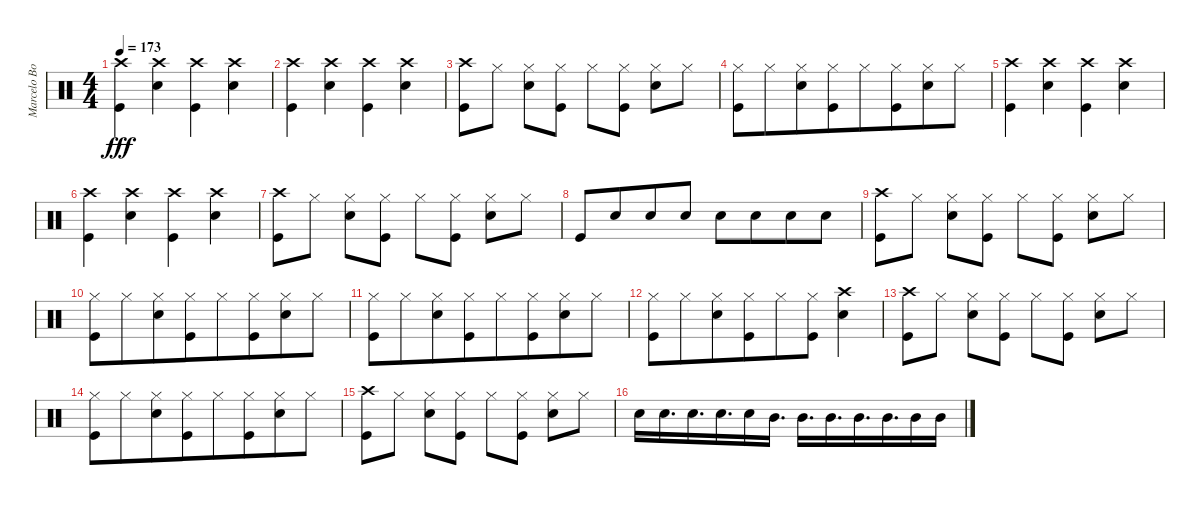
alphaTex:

\track ("Marcelo Bonfá (Bateria)" "Marcelo Bo") {instrument percussion}
\staff {score}
\articulation defaults
\ts (4 4)
\tempo 173
\clef neutral
\ks c
("Kick (hit)" "Crash high (hit)").4{dy fff} ("Crash high (hit)" "Snare (hit) 2").4 ("Kick (hit)" "Crash high (hit)").4 ("Snare (hit) 2" "Crash high (hit)").4 |
("Kick (hit)" "Crash high (hit)").4 ("Crash high (hit)" "Snare (hit) 2").4 ("Kick (hit)" "Crash high (hit)").4 ("Snare (hit) 2" "Crash high (hit)").4 |
("Kick (hit)" "Crash high (hit)").8 "Hi-Hat (closed)".8 ("Snare (hit) 2" "Hi-Hat (closed)").8 ("Kick (hit)" "Hi-Hat (closed)").8 "Hi-Hat (closed)".8 ("Hi-Hat (closed)" "Kick (hit)").8 ("Snare (hit) 2" "Hi-Hat (closed)").8 "Hi-Hat (closed)".8 |
("Kick (hit)" "Hi-Hat (closed)").8 "Hi-Hat (closed)".8{beam merge} ("Snare (hit) 2" "Hi-Hat (closed)").8 ("Kick (hit)" "Hi-Hat (closed)").8{beam merge} "Hi-Hat (closed)".8 ("Hi-Hat (closed)" "Kick (hit)").8{beam merge} ("Snare (hit) 2" "Hi-Hat (closed)").8 "Hi-Hat (closed)".8 |
("Kick (hit)" "Crash high (hit)").4 ("Crash high (hit)" "Snare (hit) 2").4 ("Kick (hit)" "Crash high (hit)").4 ("Snare (hit) 2" "Crash high (hit)").4 |
("Kick (hit)" "Crash high (hit)").4 ("Crash high (hit)" "Snare (hit) 2").4 ("Kick (hit)" "Crash high (hit)").4 ("Snare (hit) 2" "Crash high (hit)").4 |
("Kick (hit)" "Crash high (hit)").8 "Hi-Hat (closed)".8 ("Snare (hit) 2" "Hi-Hat (closed)").8 ("Kick (hit)" "Hi-Hat (closed)").8 "Hi-Hat (closed)".8 ("Hi-Hat (closed)" "Kick (hit)").8 ("Snare (hit) 2" "Hi-Hat (closed)").8 "Hi-Hat (closed)".8 |
"Kick (hit)".8 "Snare (hit) 2".8{beam merge} "Snare (hit) 2".8 "Snare (hit) 2".8 "Snare (hit) 2".8 "Snare (hit) 2".8{beam merge} "Snare (hit) 2".8 "Snare (hit) 2".8 |
("Kick (hit)" "Crash high (hit)").8 "Hi-Hat (closed)".8 ("Snare (hit) 2" "Hi-Hat (closed)").8 ("Kick (hit)" "Hi-Hat (closed)").8 "Hi-Hat (closed)".8 ("Hi-Hat (closed)" "Kick (hit)").8 ("Snare (hit) 2" "Hi-Hat (closed)").8 "Hi-Hat (closed)".8 |
("Kick (hit)" "Hi-Hat (closed)").8 "Hi-Hat (closed)".8{beam merge} ("Snare (hit) 2" "Hi-Hat (closed)").8 ("Kick (hit)" "Hi-Hat (closed)").8{beam merge} "Hi-Hat (closed)".8 ("Hi-Hat (closed)" "Kick (hit)").8{beam merge} ("Snare (hit) 2" "Hi-Hat (closed)").8 "Hi-Hat (closed)".8 |
("Kick (hit)" "Hi-Hat (closed)").8 "Hi-Hat (closed)".8{beam merge} ("Snare (hit) 2" "Hi-Hat (closed)").8 ("Kick (hit)" "Hi-Hat (closed)").8{beam merge} "Hi-Hat (closed)".8 ("Hi-Hat (closed)" "Kick (hit)").8{beam merge} ("Snare (hit) 2" "Hi-Hat (closed)").8 "Hi-Hat (closed)".8 |
("Kick (hit)" "Hi-Hat (closed)").8 "Hi-Hat (closed)".8{beam merge} ("Snare (hit) 2" "Hi-Hat (closed)").8 ("Kick (hit)" "Hi-Hat (closed)").8{beam merge} "Hi-Hat (closed)".8 ("Hi-Hat (closed)" "Kick (hit)").8{beam merge} ("Snare (hit) 2" "Crash high (hit)").4 |
("Kick (hit)" "Crash high (hit)").8 "Hi-Hat (closed)".8 ("Snare (hit) 2" "Hi-Hat (closed)").8 ("Kick (hit)" "Hi-Hat (closed)").8 "Hi-Hat (closed)".8 ("Hi-Hat (closed)" "Kick (hit)").8 ("Snare (hit) 2" "Hi-Hat (closed)").8 "Hi-Hat (closed)".8 |
("Kick (hit)" "Hi-Hat (closed)").8 "Hi-Hat (closed)".8{beam merge} ("Snare (hit) 2" "Hi-Hat (closed)").8 ("Kick (hit)" "Hi-Hat (closed)").8{beam merge} "Hi-Hat (closed)".8 ("Hi-Hat (closed)" "Kick (hit)").8{beam merge} ("Snare (hit) 2" "Hi-Hat (closed)").8 "Hi-Hat (closed)".8 |
("Kick (hit)" "Crash high (hit)").8 "Hi-Hat (closed)".8 ("Snare (hit) 2" "Hi-Hat (closed)").8 ("Kick (hit)" "Hi-Hat (closed)").8 "Hi-Hat (closed)".8 ("Hi-Hat (closed)" "Kick (hit)").8 ("Snare (hit) 2" "Hi-Hat (closed)").8 "Hi-Hat (closed)".8 |
"Snare (hit) 2".16 "Snare (hit) 2".16{d} "Snare (hit) 2".16{d beam merge} "Snare (hit) 2".16{d} "Snare (hit) 2".16 "Mid Tom (hit)".16{d} "Mid Tom (hit)".16{d} "Mid Tom (hit)".16{d} "Mid Tom (hit)".16{d beam merge} "Mid Tom (hit)".16{d} "Mid Tom (hit)".16 "Mid Tom (hit)".16
